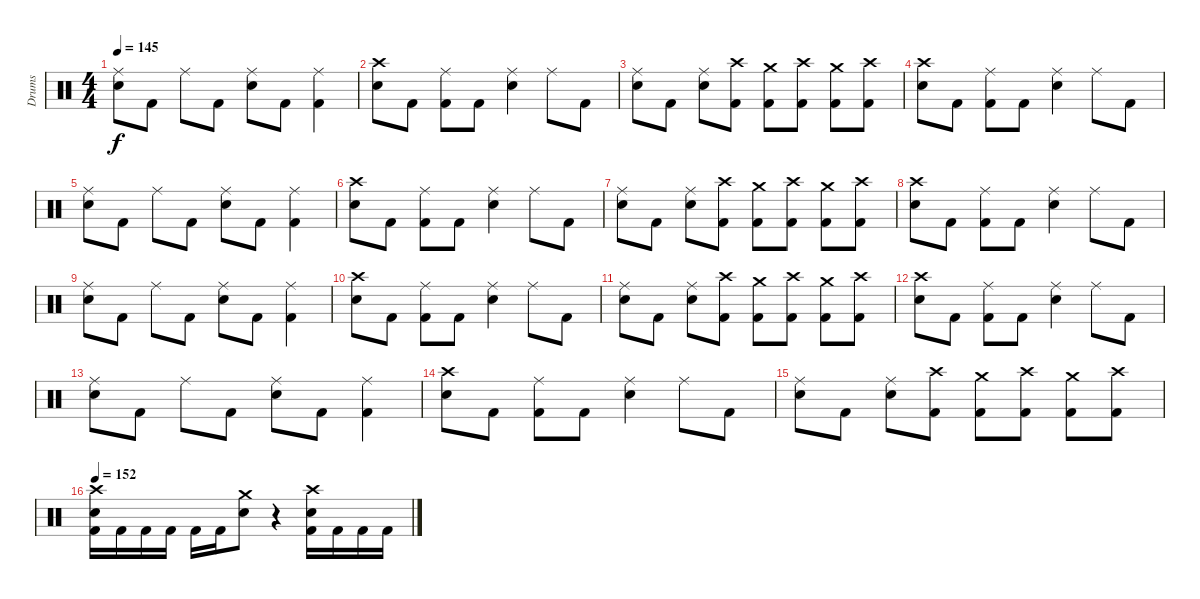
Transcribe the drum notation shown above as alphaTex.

\track ("Drums" "Drums") {instrument percussion}
\staff {score}
\articulation defaults
\ts (4 4)
\tempo 145
\clef neutral
\ks c
("Ride (middle)" "Snare (hit) 2").8{dy f} "Kick (hit) 2".8 "Ride (middle)".8 "Kick (hit) 2".8 ("Ride (middle)" "Snare (hit) 2").8 "Kick (hit) 2".8 ("Ride (middle)" "Kick (hit) 2").4 |
("Crash high (hit)" "Snare (hit) 2").8 "Kick (hit) 2".8 ("Ride (middle)" "Kick (hit) 2").8 "Kick (hit) 2".8 ("Ride (middle)" "Snare (hit) 2").4 "Ride (middle)".8 "Kick (hit) 2".8 |
("Ride (middle)" "Snare (hit) 2").8 "Kick (hit) 2".8 ("Ride (middle)" "Snare (hit) 2").8 ("Crash high (hit)" "Kick (hit) 2").8 ("Crash medium (hit)" "Kick (hit) 2").8 ("Crash high (hit)" "Kick (hit) 2").8 ("Crash medium (hit)" "Kick (hit) 2").8 ("Crash high (hit)" "Kick (hit) 2").8 |
("Crash high (hit)" "Snare (hit) 2").8 "Kick (hit) 2".8 ("Ride (middle)" "Kick (hit) 2").8 "Kick (hit) 2".8 ("Ride (middle)" "Snare (hit) 2").4 "Ride (middle)".8 "Kick (hit) 2".8 |
("Ride (middle)" "Snare (hit) 2").8 "Kick (hit) 2".8 "Ride (middle)".8 "Kick (hit) 2".8 ("Ride (middle)" "Snare (hit) 2").8 "Kick (hit) 2".8 ("Ride (middle)" "Kick (hit) 2").4 |
("Crash high (hit)" "Snare (hit) 2").8 "Kick (hit) 2".8 ("Ride (middle)" "Kick (hit) 2").8 "Kick (hit) 2".8 ("Ride (middle)" "Snare (hit) 2").4 "Ride (middle)".8 "Kick (hit) 2".8 |
("Ride (middle)" "Snare (hit) 2").8 "Kick (hit) 2".8 ("Ride (middle)" "Snare (hit) 2").8 ("Crash high (hit)" "Kick (hit) 2").8 ("Crash medium (hit)" "Kick (hit) 2").8 ("Crash high (hit)" "Kick (hit) 2").8 ("Crash medium (hit)" "Kick (hit) 2").8 ("Crash high (hit)" "Kick (hit) 2").8 |
("Crash high (hit)" "Snare (hit) 2").8 "Kick (hit) 2".8 ("Ride (middle)" "Kick (hit) 2").8 "Kick (hit) 2".8 ("Ride (middle)" "Snare (hit) 2").4 "Ride (middle)".8 "Kick (hit) 2".8 |
("Ride (middle)" "Snare (hit) 2").8 "Kick (hit) 2".8 "Ride (middle)".8 "Kick (hit) 2".8 ("Ride (middle)" "Snare (hit) 2").8 "Kick (hit) 2".8 ("Ride (middle)" "Kick (hit) 2").4 |
("Crash high (hit)" "Snare (hit) 2").8 "Kick (hit) 2".8 ("Ride (middle)" "Kick (hit) 2").8 "Kick (hit) 2".8 ("Ride (middle)" "Snare (hit) 2").4 "Ride (middle)".8 "Kick (hit) 2".8 |
("Ride (middle)" "Snare (hit) 2").8 "Kick (hit) 2".8 ("Ride (middle)" "Snare (hit) 2").8 ("Crash high (hit)" "Kick (hit) 2").8 ("Crash medium (hit)" "Kick (hit) 2").8 ("Crash high (hit)" "Kick (hit) 2").8 ("Crash medium (hit)" "Kick (hit) 2").8 ("Crash high (hit)" "Kick (hit) 2").8 |
("Crash high (hit)" "Snare (hit) 2").8 "Kick (hit) 2".8 ("Ride (middle)" "Kick (hit) 2").8 "Kick (hit) 2".8 ("Ride (middle)" "Snare (hit) 2").4 "Ride (middle)".8 "Kick (hit) 2".8 |
("Ride (middle)" "Snare (hit) 2").8 "Kick (hit) 2".8 "Ride (middle)".8 "Kick (hit) 2".8 ("Ride (middle)" "Snare (hit) 2").8 "Kick (hit) 2".8 ("Ride (middle)" "Kick (hit) 2").4 |
("Crash high (hit)" "Snare (hit) 2").8 "Kick (hit) 2".8 ("Ride (middle)" "Kick (hit) 2").8 "Kick (hit) 2".8 ("Ride (middle)" "Snare (hit) 2").4 "Ride (middle)".8 "Kick (hit) 2".8 |
("Ride (middle)" "Snare (hit) 2").8 "Kick (hit) 2".8 ("Ride (middle)" "Snare (hit) 2").8 ("Crash high (hit)" "Kick (hit) 2").8 ("Crash medium (hit)" "Kick (hit) 2").8 ("Crash high (hit)" "Kick (hit) 2").8 ("Crash medium (hit)" "Kick (hit) 2").8 ("Crash high (hit)" "Kick (hit) 2").8 |
\tempo 152
("Crash high (hit)" "Snare (hit) 2" "Kick (hit) 2").16 "Kick (hit) 2".16 "Kick (hit) 2".16 "Kick (hit) 2".16 "Kick (hit) 2".16 "Kick (hit) 2".16 ("Crash medium (hit)" "Snare (hit) 2").8 r.4 ("Crash high (hit)" "Snare (hit) 2" "Kick (hit) 2").16 "Kick (hit) 2".16 "Kick (hit) 2".16 "Kick (hit) 2".16
